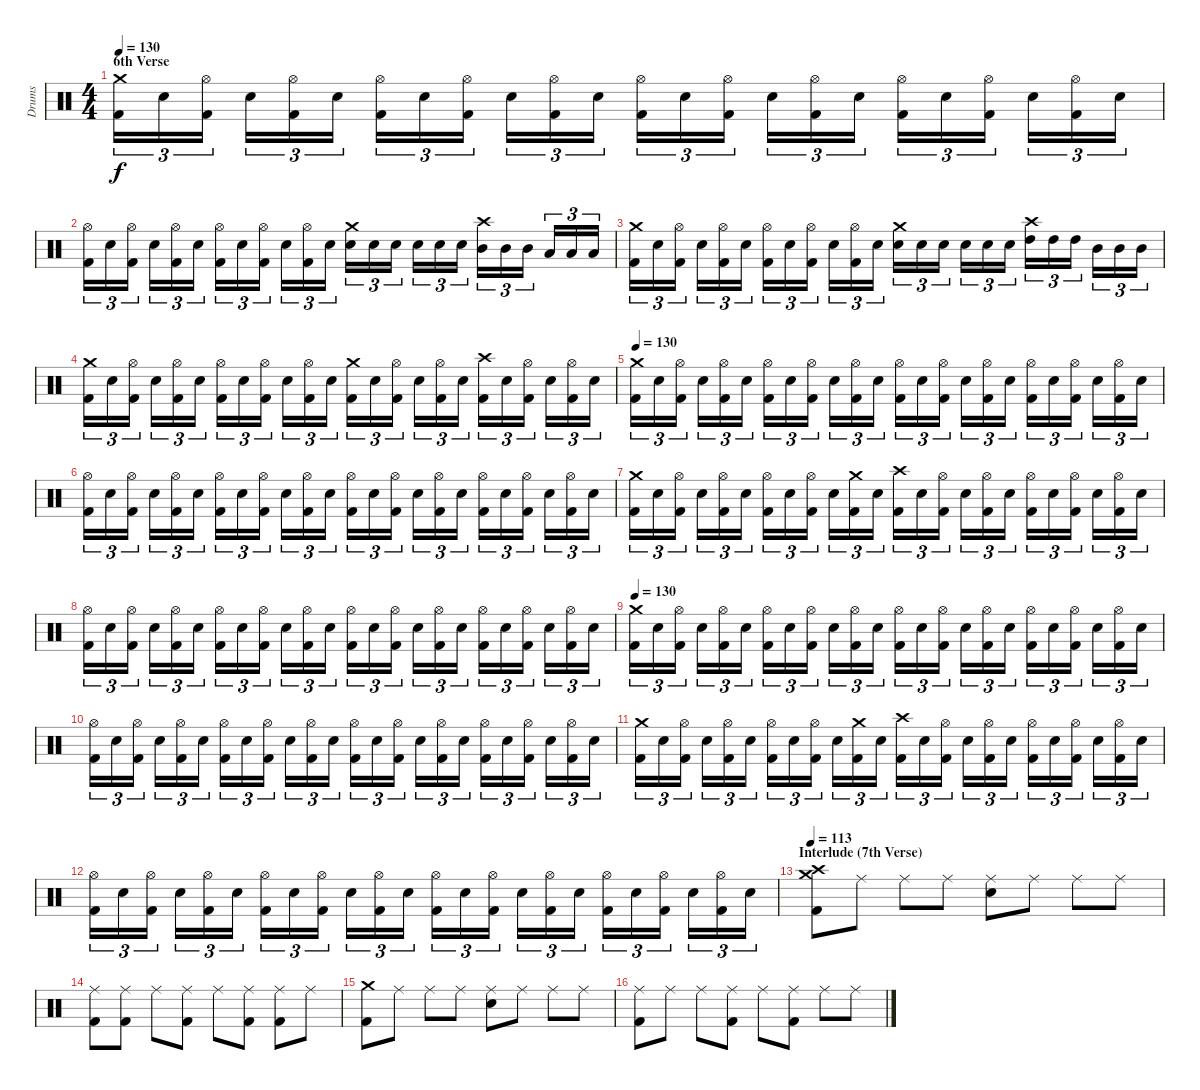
\track ("Drums" "Drums") {instrument percussion}
\staff {score}
\articulation defaults
\ts (4 4)
\section ("" "6th Verse")
\tempo 130
\clef neutral
\ks c
("Kick (hit) 2" "Crash medium (hit)").16{tu (3 2) dy f} "Electric Snare (hit)".16{tu (3 2)} ("Kick (hit) 2" "Hi-Hat (open)").16{tu (3 2)} "Electric Snare (hit)".16{tu (3 2)} ("Kick (hit) 2" "Hi-Hat (open)").16{tu (3 2)} "Electric Snare (hit)".16{tu (3 2)} ("Kick (hit) 2" "Hi-Hat (open)").16{tu (3 2)} "Electric Snare (hit)".16{tu (3 2)} ("Kick (hit) 2" "Hi-Hat (open)").16{tu (3 2)} "Electric Snare (hit)".16{tu (3 2)} ("Kick (hit) 2" "Hi-Hat (open)").16{tu (3 2)} "Electric Snare (hit)".16{tu (3 2)} ("Kick (hit) 2" "Hi-Hat (open)").16{tu (3 2)} "Electric Snare (hit)".16{tu (3 2)} ("Kick (hit) 2" "Hi-Hat (open)").16{tu (3 2)} "Electric Snare (hit)".16{tu (3 2)} ("Kick (hit) 2" "Hi-Hat (open)").16{tu (3 2)} "Electric Snare (hit)".16{tu (3 2)} ("Kick (hit) 2" "Hi-Hat (open)").16{tu (3 2)} "Electric Snare (hit)".16{tu (3 2)} ("Kick (hit) 2" "Hi-Hat (open)").16{tu (3 2)} "Electric Snare (hit)".16{tu (3 2)} ("Kick (hit) 2" "Hi-Hat (open)").16{tu (3 2)} "Electric Snare (hit)".16{tu (3 2)} |
("Kick (hit) 2" "Hi-Hat (open)").16{tu (3 2)} "Electric Snare (hit)".16{tu (3 2)} ("Kick (hit) 2" "Hi-Hat (open)").16{tu (3 2)} "Electric Snare (hit)".16{tu (3 2)} ("Kick (hit) 2" "Hi-Hat (open)").16{tu (3 2)} "Electric Snare (hit)".16{tu (3 2)} ("Kick (hit) 2" "Hi-Hat (open)").16{tu (3 2)} "Electric Snare (hit)".16{tu (3 2)} ("Kick (hit) 2" "Hi-Hat (open)").16{tu (3 2)} "Electric Snare (hit)".16{tu (3 2)} ("Kick (hit) 2" "Hi-Hat (open)").16{tu (3 2)} "Electric Snare (hit)".16{tu (3 2)} ("Electric Snare (hit)" "Crash medium (hit)").16{tu (3 2)} "Electric Snare (hit)".16{tu (3 2)} "Electric Snare (hit)".16{tu (3 2)} "Electric Snare (hit)".16{tu (3 2)} "Electric Snare (hit)".16{tu (3 2)} "Electric Snare (hit)".16{tu (3 2)} ("Mid Tom (hit)" "Crash high (hit)").16{tu (3 2)} "Mid Tom (hit)".16{tu (3 2)} "Mid Tom (hit)".16{tu (3 2)} "Low Tom (hit)".16{tu (3 2)} "Low Tom (hit)".16{tu (3 2)} "Low Tom (hit)".16{tu (3 2)} |
("Kick (hit) 2" "Crash medium (hit)").16{tu (3 2)} "Electric Snare (hit)".16{tu (3 2)} ("Kick (hit) 2" "Hi-Hat (open)").16{tu (3 2)} "Electric Snare (hit)".16{tu (3 2)} ("Kick (hit) 2" "Hi-Hat (open)").16{tu (3 2)} "Electric Snare (hit)".16{tu (3 2)} ("Kick (hit) 2" "Hi-Hat (open)").16{tu (3 2)} "Electric Snare (hit)".16{tu (3 2)} ("Kick (hit) 2" "Hi-Hat (open)").16{tu (3 2)} "Electric Snare (hit)".16{tu (3 2)} ("Kick (hit) 2" "Hi-Hat (open)").16{tu (3 2)} "Electric Snare (hit)".16{tu (3 2)} ("Electric Snare (hit)" "Crash medium (hit)").16{tu (3 2)} "Electric Snare (hit)".16{tu (3 2)} "Electric Snare (hit)".16{tu (3 2)} "Electric Snare (hit)".16{tu (3 2)} "Electric Snare (hit)".16{tu (3 2)} "Electric Snare (hit)".16{tu (3 2)} ("High Tom (hit)" "Crash high (hit)").16{tu (3 2)} "High Tom (hit)".16{tu (3 2)} "High Tom (hit)".16{tu (3 2)} "Mid Tom (hit)".16{tu (3 2)} "Mid Tom (hit)".16{tu (3 2)} "Mid Tom (hit)".16{tu (3 2)} |
("Kick (hit) 2" "Crash medium (hit)").16{tu (3 2)} "Electric Snare (hit)".16{tu (3 2)} ("Kick (hit) 2" "Hi-Hat (open)").16{tu (3 2)} "Electric Snare (hit)".16{tu (3 2)} ("Kick (hit) 2" "Hi-Hat (open)").16{tu (3 2)} "Electric Snare (hit)".16{tu (3 2)} ("Kick (hit) 2" "Hi-Hat (open)").16{tu (3 2)} "Electric Snare (hit)".16{tu (3 2)} ("Kick (hit) 2" "Hi-Hat (open)").16{tu (3 2)} "Electric Snare (hit)".16{tu (3 2)} ("Kick (hit) 2" "Hi-Hat (open)").16{tu (3 2)} "Electric Snare (hit)".16{tu (3 2)} ("Kick (hit) 2" "Crash medium (hit)").16{tu (3 2)} "Electric Snare (hit)".16{tu (3 2)} ("Kick (hit) 2" "Hi-Hat (open)").16{tu (3 2)} "Electric Snare (hit)".16{tu (3 2)} ("Kick (hit) 2" "Hi-Hat (open)").16{tu (3 2)} "Electric Snare (hit)".16{tu (3 2)} ("Kick (hit) 2" "Crash high (hit)").16{tu (3 2)} "Electric Snare (hit)".16{tu (3 2)} ("Kick (hit) 2" "Hi-Hat (open)").16{tu (3 2)} "Electric Snare (hit)".16{tu (3 2)} ("Kick (hit) 2" "Hi-Hat (open)").16{tu (3 2)} "Electric Snare (hit)".16{tu (3 2)} |
\tempo 130
("Kick (hit) 2" "Crash medium (hit)").16{tu (3 2)} "Electric Snare (hit)".16{tu (3 2)} ("Kick (hit) 2" "Hi-Hat (open)").16{tu (3 2)} "Electric Snare (hit)".16{tu (3 2)} ("Kick (hit) 2" "Hi-Hat (open)").16{tu (3 2)} "Electric Snare (hit)".16{tu (3 2)} ("Kick (hit) 2" "Hi-Hat (open)").16{tu (3 2)} "Electric Snare (hit)".16{tu (3 2)} ("Kick (hit) 2" "Hi-Hat (open)").16{tu (3 2)} "Electric Snare (hit)".16{tu (3 2)} ("Kick (hit) 2" "Hi-Hat (open)").16{tu (3 2)} "Electric Snare (hit)".16{tu (3 2)} ("Kick (hit) 2" "Hi-Hat (open)").16{tu (3 2)} "Electric Snare (hit)".16{tu (3 2)} ("Kick (hit) 2" "Hi-Hat (open)").16{tu (3 2)} "Electric Snare (hit)".16{tu (3 2)} ("Kick (hit) 2" "Hi-Hat (open)").16{tu (3 2)} "Electric Snare (hit)".16{tu (3 2)} ("Kick (hit) 2" "Hi-Hat (open)").16{tu (3 2)} "Electric Snare (hit)".16{tu (3 2)} ("Kick (hit) 2" "Hi-Hat (open)").16{tu (3 2)} "Electric Snare (hit)".16{tu (3 2)} ("Kick (hit) 2" "Hi-Hat (open)").16{tu (3 2)} "Electric Snare (hit)".16{tu (3 2)} |
("Kick (hit) 2" "Hi-Hat (open)").16{tu (3 2)} "Electric Snare (hit)".16{tu (3 2)} ("Kick (hit) 2" "Hi-Hat (open)").16{tu (3 2)} "Electric Snare (hit)".16{tu (3 2)} ("Kick (hit) 2" "Hi-Hat (open)").16{tu (3 2)} "Electric Snare (hit)".16{tu (3 2)} ("Kick (hit) 2" "Hi-Hat (open)").16{tu (3 2)} "Electric Snare (hit)".16{tu (3 2)} ("Kick (hit) 2" "Hi-Hat (open)").16{tu (3 2)} "Electric Snare (hit)".16{tu (3 2)} ("Kick (hit) 2" "Hi-Hat (open)").16{tu (3 2)} "Electric Snare (hit)".16{tu (3 2)} ("Kick (hit) 2" "Hi-Hat (open)").16{tu (3 2)} "Electric Snare (hit)".16{tu (3 2)} ("Kick (hit) 2" "Hi-Hat (open)").16{tu (3 2)} "Electric Snare (hit)".16{tu (3 2)} ("Kick (hit) 2" "Hi-Hat (open)").16{tu (3 2)} "Electric Snare (hit)".16{tu (3 2)} ("Kick (hit) 2" "Hi-Hat (open)").16{tu (3 2)} "Electric Snare (hit)".16{tu (3 2)} ("Kick (hit) 2" "Hi-Hat (open)").16{tu (3 2)} "Electric Snare (hit)".16{tu (3 2)} ("Kick (hit) 2" "Hi-Hat (open)").16{tu (3 2)} "Electric Snare (hit)".16{tu (3 2)} |
("Kick (hit) 2" "Crash medium (hit)").16{tu (3 2)} "Electric Snare (hit)".16{tu (3 2)} ("Kick (hit) 2" "Hi-Hat (open)").16{tu (3 2)} "Electric Snare (hit)".16{tu (3 2)} ("Kick (hit) 2" "Hi-Hat (open)").16{tu (3 2)} "Electric Snare (hit)".16{tu (3 2)} ("Kick (hit) 2" "Hi-Hat (open)").16{tu (3 2)} "Electric Snare (hit)".16{tu (3 2)} ("Kick (hit) 2" "Hi-Hat (open)").16{tu (3 2)} "Electric Snare (hit)".16{tu (3 2)} ("Kick (hit) 2" "Crash medium (hit)").16{tu (3 2)} "Electric Snare (hit)".16{tu (3 2)} ("Kick (hit) 2" "Crash high (hit)").16{tu (3 2)} "Electric Snare (hit)".16{tu (3 2)} ("Kick (hit) 2" "Hi-Hat (open)").16{tu (3 2)} "Electric Snare (hit)".16{tu (3 2)} ("Kick (hit) 2" "Hi-Hat (open)").16{tu (3 2)} "Electric Snare (hit)".16{tu (3 2)} ("Kick (hit) 2" "Hi-Hat (open)").16{tu (3 2)} "Electric Snare (hit)".16{tu (3 2)} ("Kick (hit) 2" "Hi-Hat (open)").16{tu (3 2)} "Electric Snare (hit)".16{tu (3 2)} ("Kick (hit) 2" "Hi-Hat (open)").16{tu (3 2)} "Electric Snare (hit)".16{tu (3 2)} |
("Kick (hit) 2" "Hi-Hat (open)").16{tu (3 2)} "Electric Snare (hit)".16{tu (3 2)} ("Kick (hit) 2" "Hi-Hat (open)").16{tu (3 2)} "Electric Snare (hit)".16{tu (3 2)} ("Kick (hit) 2" "Hi-Hat (open)").16{tu (3 2)} "Electric Snare (hit)".16{tu (3 2)} ("Kick (hit) 2" "Hi-Hat (open)").16{tu (3 2)} "Electric Snare (hit)".16{tu (3 2)} ("Kick (hit) 2" "Hi-Hat (open)").16{tu (3 2)} "Electric Snare (hit)".16{tu (3 2)} ("Kick (hit) 2" "Hi-Hat (open)").16{tu (3 2)} "Electric Snare (hit)".16{tu (3 2)} ("Kick (hit) 2" "Hi-Hat (open)").16{tu (3 2)} "Electric Snare (hit)".16{tu (3 2)} ("Kick (hit) 2" "Hi-Hat (open)").16{tu (3 2)} "Electric Snare (hit)".16{tu (3 2)} ("Kick (hit) 2" "Hi-Hat (open)").16{tu (3 2)} "Electric Snare (hit)".16{tu (3 2)} ("Kick (hit) 2" "Hi-Hat (open)").16{tu (3 2)} "Electric Snare (hit)".16{tu (3 2)} ("Kick (hit) 2" "Hi-Hat (open)").16{tu (3 2)} "Electric Snare (hit)".16{tu (3 2)} ("Kick (hit) 2" "Hi-Hat (open)").16{tu (3 2)} "Electric Snare (hit)".16{tu (3 2)} |
\tempo 130
("Kick (hit) 2" "Crash medium (hit)").16{tu (3 2)} "Electric Snare (hit)".16{tu (3 2)} ("Kick (hit) 2" "Hi-Hat (open)").16{tu (3 2)} "Electric Snare (hit)".16{tu (3 2)} ("Kick (hit) 2" "Hi-Hat (open)").16{tu (3 2)} "Electric Snare (hit)".16{tu (3 2)} ("Kick (hit) 2" "Hi-Hat (open)").16{tu (3 2)} "Electric Snare (hit)".16{tu (3 2)} ("Kick (hit) 2" "Hi-Hat (open)").16{tu (3 2)} "Electric Snare (hit)".16{tu (3 2)} ("Kick (hit) 2" "Hi-Hat (open)").16{tu (3 2)} "Electric Snare (hit)".16{tu (3 2)} ("Kick (hit) 2" "Hi-Hat (open)").16{tu (3 2)} "Electric Snare (hit)".16{tu (3 2)} ("Kick (hit) 2" "Hi-Hat (open)").16{tu (3 2)} "Electric Snare (hit)".16{tu (3 2)} ("Kick (hit) 2" "Hi-Hat (open)").16{tu (3 2)} "Electric Snare (hit)".16{tu (3 2)} ("Kick (hit) 2" "Hi-Hat (open)").16{tu (3 2)} "Electric Snare (hit)".16{tu (3 2)} ("Kick (hit) 2" "Hi-Hat (open)").16{tu (3 2)} "Electric Snare (hit)".16{tu (3 2)} ("Kick (hit) 2" "Hi-Hat (open)").16{tu (3 2)} "Electric Snare (hit)".16{tu (3 2)} |
("Kick (hit) 2" "Hi-Hat (open)").16{tu (3 2)} "Electric Snare (hit)".16{tu (3 2)} ("Kick (hit) 2" "Hi-Hat (open)").16{tu (3 2)} "Electric Snare (hit)".16{tu (3 2)} ("Kick (hit) 2" "Hi-Hat (open)").16{tu (3 2)} "Electric Snare (hit)".16{tu (3 2)} ("Kick (hit) 2" "Hi-Hat (open)").16{tu (3 2)} "Electric Snare (hit)".16{tu (3 2)} ("Kick (hit) 2" "Hi-Hat (open)").16{tu (3 2)} "Electric Snare (hit)".16{tu (3 2)} ("Kick (hit) 2" "Hi-Hat (open)").16{tu (3 2)} "Electric Snare (hit)".16{tu (3 2)} ("Kick (hit) 2" "Hi-Hat (open)").16{tu (3 2)} "Electric Snare (hit)".16{tu (3 2)} ("Kick (hit) 2" "Hi-Hat (open)").16{tu (3 2)} "Electric Snare (hit)".16{tu (3 2)} ("Kick (hit) 2" "Hi-Hat (open)").16{tu (3 2)} "Electric Snare (hit)".16{tu (3 2)} ("Kick (hit) 2" "Hi-Hat (open)").16{tu (3 2)} "Electric Snare (hit)".16{tu (3 2)} ("Kick (hit) 2" "Hi-Hat (open)").16{tu (3 2)} "Electric Snare (hit)".16{tu (3 2)} ("Kick (hit) 2" "Hi-Hat (open)").16{tu (3 2)} "Electric Snare (hit)".16{tu (3 2)} |
("Kick (hit) 2" "Crash medium (hit)").16{tu (3 2)} "Electric Snare (hit)".16{tu (3 2)} ("Kick (hit) 2" "Hi-Hat (open)").16{tu (3 2)} "Electric Snare (hit)".16{tu (3 2)} ("Kick (hit) 2" "Hi-Hat (open)").16{tu (3 2)} "Electric Snare (hit)".16{tu (3 2)} ("Kick (hit) 2" "Hi-Hat (open)").16{tu (3 2)} "Electric Snare (hit)".16{tu (3 2)} ("Kick (hit) 2" "Hi-Hat (open)").16{tu (3 2)} "Electric Snare (hit)".16{tu (3 2)} ("Kick (hit) 2" "Crash medium (hit)").16{tu (3 2)} "Electric Snare (hit)".16{tu (3 2)} ("Kick (hit) 2" "Crash high (hit)").16{tu (3 2)} "Electric Snare (hit)".16{tu (3 2)} ("Kick (hit) 2" "Hi-Hat (open)").16{tu (3 2)} "Electric Snare (hit)".16{tu (3 2)} ("Kick (hit) 2" "Hi-Hat (open)").16{tu (3 2)} "Electric Snare (hit)".16{tu (3 2)} ("Kick (hit) 2" "Hi-Hat (open)").16{tu (3 2)} "Electric Snare (hit)".16{tu (3 2)} ("Kick (hit) 2" "Hi-Hat (open)").16{tu (3 2)} "Electric Snare (hit)".16{tu (3 2)} ("Kick (hit) 2" "Hi-Hat (open)").16{tu (3 2)} "Electric Snare (hit)".16{tu (3 2)} |
("Kick (hit) 2" "Hi-Hat (open)").16{tu (3 2)} "Electric Snare (hit)".16{tu (3 2)} ("Kick (hit) 2" "Hi-Hat (open)").16{tu (3 2)} "Electric Snare (hit)".16{tu (3 2)} ("Kick (hit) 2" "Hi-Hat (open)").16{tu (3 2)} "Electric Snare (hit)".16{tu (3 2)} ("Kick (hit) 2" "Hi-Hat (open)").16{tu (3 2)} "Electric Snare (hit)".16{tu (3 2)} ("Kick (hit) 2" "Hi-Hat (open)").16{tu (3 2)} "Electric Snare (hit)".16{tu (3 2)} ("Kick (hit) 2" "Hi-Hat (open)").16{tu (3 2)} "Electric Snare (hit)".16{tu (3 2)} ("Kick (hit) 2" "Hi-Hat (open)").16{tu (3 2)} "Electric Snare (hit)".16{tu (3 2)} ("Kick (hit) 2" "Hi-Hat (open)").16{tu (3 2)} "Electric Snare (hit)".16{tu (3 2)} ("Kick (hit) 2" "Hi-Hat (open)").16{tu (3 2)} "Electric Snare (hit)".16{tu (3 2)} ("Kick (hit) 2" "Hi-Hat (open)").16{tu (3 2)} "Electric Snare (hit)".16{tu (3 2)} ("Kick (hit) 2" "Hi-Hat (open)").16{tu (3 2)} "Electric Snare (hit)".16{tu (3 2)} ("Kick (hit) 2" "Hi-Hat (open)").16{tu (3 2)} "Electric Snare (hit)".16{tu (3 2)} |
\section ("" "Interlude (7th Verse)")
\tempo 113
("Kick (hit) 2" "Crash high (hit)" "Crash medium (hit)").8 "Ride (middle)".8 "Ride (middle)".8 "Ride (middle)".8 ("Electric Snare (hit)" "Ride (middle)").8 "Ride (middle)".8 "Ride (middle)".8 "Ride (middle)".8 |
("Kick (hit) 2" "Ride (middle)").8 ("Kick (hit) 2" "Ride (middle)").8 "Ride (middle)".8 ("Kick (hit) 2" "Ride (middle)").8 "Ride (middle)".8 ("Kick (hit) 2" "Ride (middle)").8 ("Kick (hit) 2" "Ride (middle)").8 "Ride (middle)".8 |
("Kick (hit) 2" "Crash medium (hit)").8 "Ride (middle)".8 "Ride (middle)".8 "Ride (middle)".8 ("Electric Snare (hit)" "Ride (middle)").8 "Ride (middle)".8 "Ride (middle)".8 "Ride (middle)".8 |
("Kick (hit) 2" "Ride (middle)").8 "Ride (middle)".8 "Ride (middle)".8 ("Kick (hit) 2" "Ride (middle)").8 "Ride (middle)".8 ("Kick (hit) 2" "Ride (middle)").8 "Ride (middle)".8 "Ride (middle)".8
